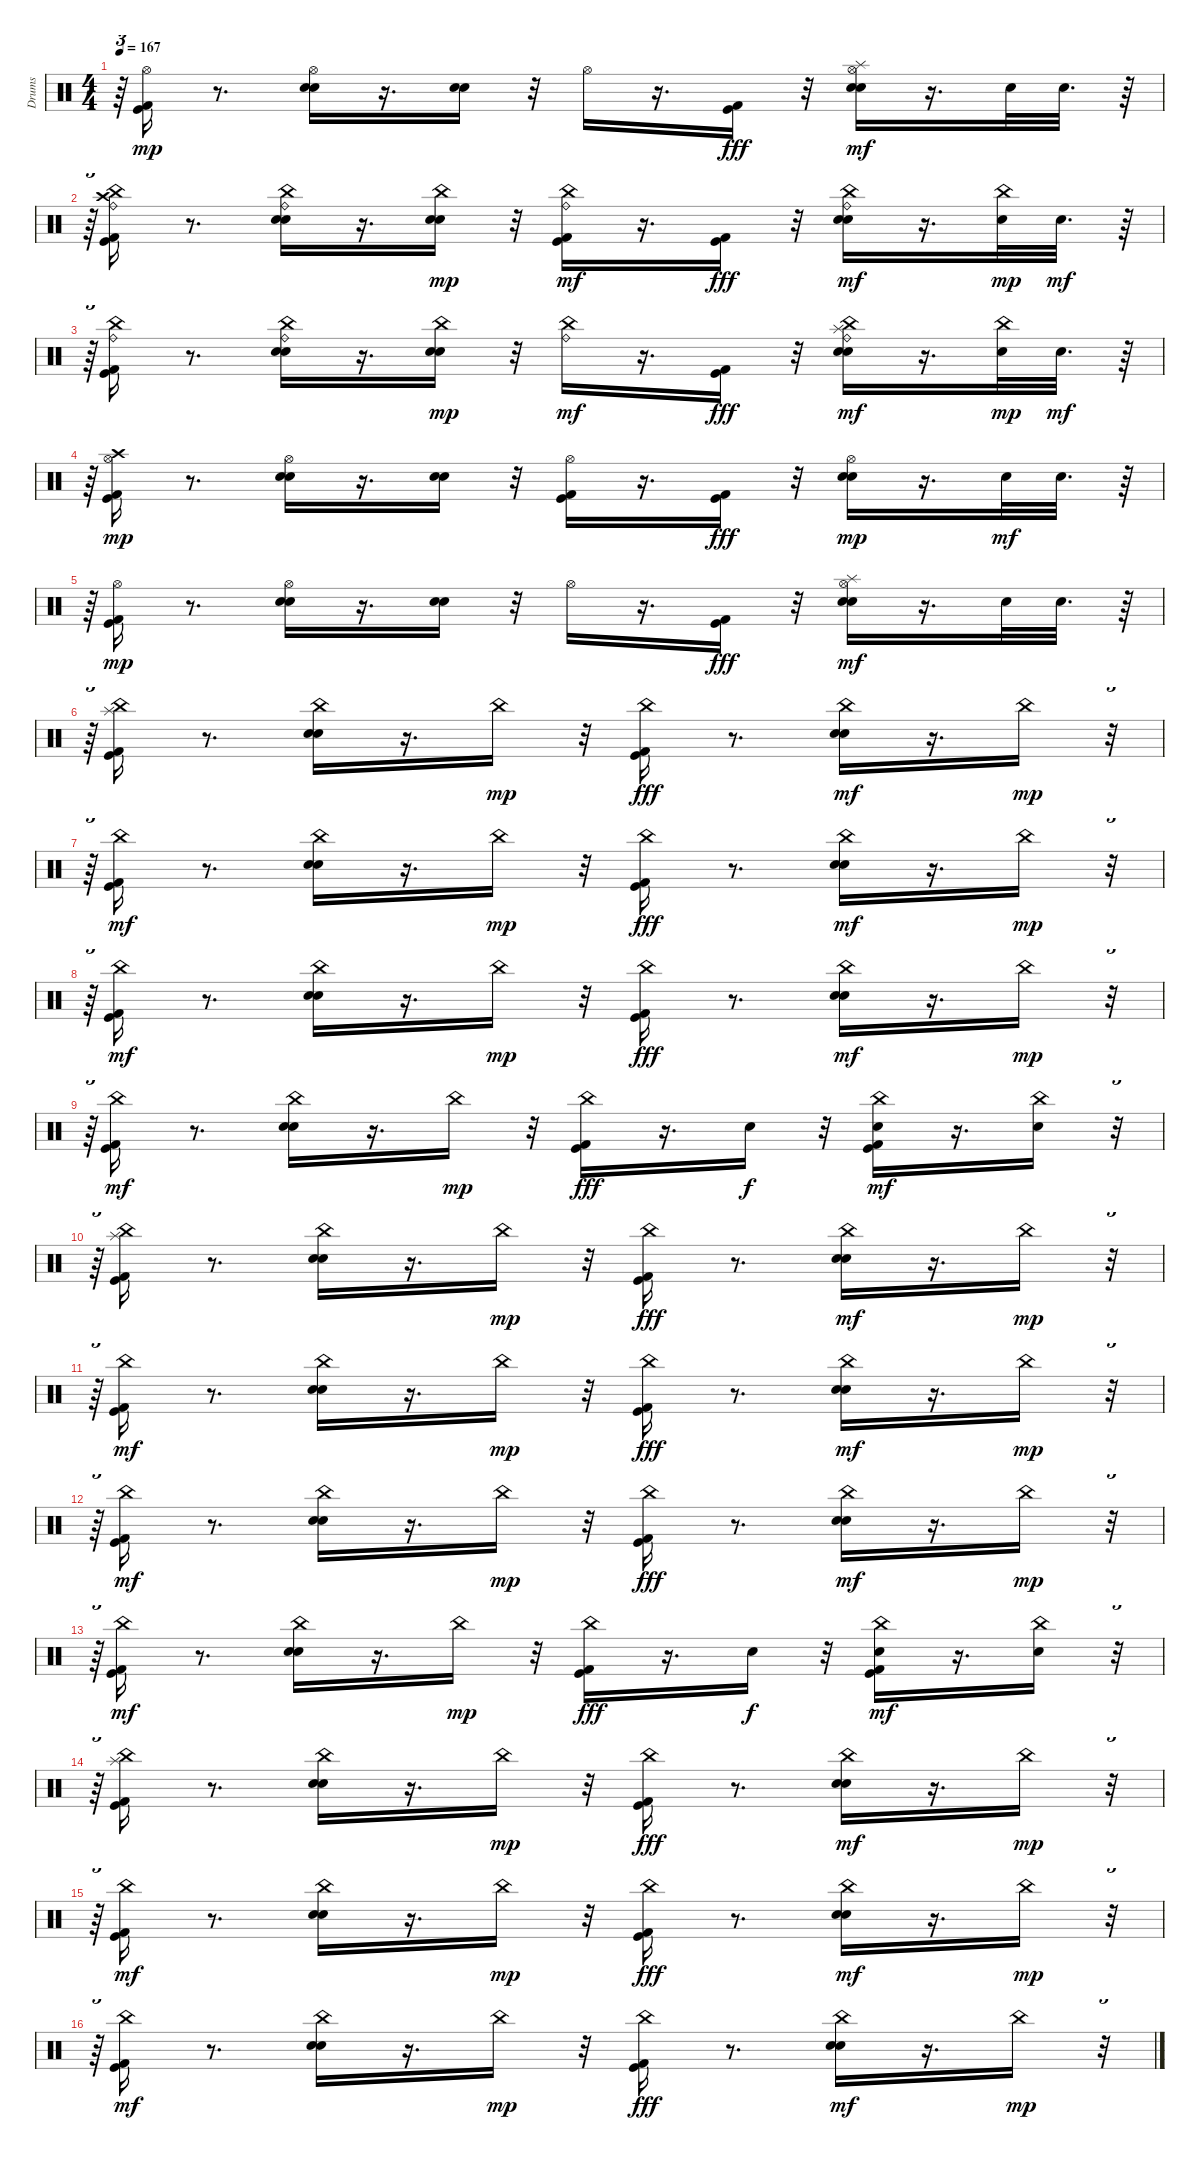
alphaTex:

\track ("Drums" "Drums") {instrument percussion}
\staff {score}
\articulation defaults
\ts (4 4)
\tempo 167
\clef neutral
\ks c
r.64{tu (3 2) dy mf} ("Kick (hit) 2" "Kick (hit)" "Hi-Hat (open)").16{dy mp} r.8{d} ("Snare (hit) 2" "Hand Clap (hit)" "Hi-Hat (open)").16 r.16{d} ("Snare (hit) 2" "Hand Clap (hit)").16 r.32 "Hi-Hat (open)".16 r.16{d} ("Kick (hit) 2" "Kick (hit)").16{dy fff} r.32 ("Snare (hit) 2" "Hand Clap (hit)" "Hi-Hat (open)" "Splash (hit)").16{dy mf} r.16{d} "Snare (hit) 2".32 "Hand Clap (hit)".32{d} r.64 |
r.64{tu (3 2)} ("Kick (hit) 2" "Kick (hit)" "China (hit)" "Ride (bell)" "Crash high (hit)").16 r.8{d} ("Snare (hit) 2" "Hand Clap (hit)" "China (hit)" "Ride (bell)").16 r.16{d} ("Snare (hit) 2" "Hand Clap (hit)" "China (hit)").16{dy mp} r.32 ("Kick (hit) 2" "Kick (hit)" "China (hit)" "Ride (bell)").16{dy mf} r.16{d} ("Kick (hit) 2" "Kick (hit)").16{dy fff} r.32 ("Snare (hit) 2" "Hand Clap (hit)" "China (hit)" "Ride (bell)").16{dy mf} r.16{d} ("Snare (hit) 2" "China (hit)").32{dy mp} "Hand Clap (hit)".32{d dy mf} r.64 |
r.64{tu (3 2)} ("Kick (hit) 2" "Kick (hit)" "China (hit)" "Ride (bell)").16 r.8{d} ("Snare (hit) 2" "Hand Clap (hit)" "China (hit)" "Ride (bell)").16 r.16{d} ("Snare (hit) 2" "Hand Clap (hit)" "China (hit)").16{dy mp} r.32 ("China (hit)" "Ride (bell)").16{dy mf} r.16{d} ("Kick (hit) 2" "Kick (hit)").16{dy fff} r.32 ("Snare (hit) 2" "Hand Clap (hit)" "China (hit)" "Ride (bell)" "Splash (hit)").16{dy mf} r.16{d} ("Snare (hit) 2" "China (hit)").32{dy mp} "Hand Clap (hit)".32{d dy mf} r.64 |
r.64{tu (3 2)} ("Kick (hit) 2" "Kick (hit)" "Crash high (hit)" "Hi-Hat (open)").16{dy mp} r.8{d} ("Snare (hit) 2" "Hand Clap (hit)" "Hi-Hat (open)").16 r.16{d} ("Snare (hit) 2" "Hand Clap (hit)").16 r.32 ("Kick (hit) 2" "Kick (hit)" "Hi-Hat (open)").16 r.16{d} ("Kick (hit) 2" "Kick (hit)").16{dy fff} r.32 ("Snare (hit) 2" "Hand Clap (hit)" "Hi-Hat (open)").16{dy mp} r.16{d} "Snare (hit) 2".32{dy mf} "Hand Clap (hit)".32{d} r.64 |
r.64{tu (3 2)} ("Kick (hit) 2" "Kick (hit)" "Hi-Hat (open)").16{dy mp} r.8{d} ("Snare (hit) 2" "Hand Clap (hit)" "Hi-Hat (open)").16 r.16{d} ("Snare (hit) 2" "Hand Clap (hit)").16 r.32 "Hi-Hat (open)".16 r.16{d} ("Kick (hit) 2" "Kick (hit)").16{dy fff} r.32 ("Snare (hit) 2" "Hand Clap (hit)" "Hi-Hat (open)" "Splash (hit)").16{dy mf} r.16{d} "Snare (hit) 2".32 "Hand Clap (hit)".32{d} r.64 |
r.64{tu (3 2)} ("Kick (hit) 2" "Kick (hit)" "Splash (hit)" "China (hit)").16 r.8{d} ("Snare (hit) 2" "China (hit)" "Hand Clap (hit)").16 r.16{d} "China (hit)".16{dy mp} r.32 ("China (hit)" "Kick (hit) 2" "Kick (hit)").16{dy fff} r.8{d} ("Snare (hit) 2" "China (hit)" "Hand Clap (hit)").16{dy mf} r.16{d} "China (hit)".16{dy mp} r.32{tu (3 2)} |
r.64{tu (3 2)} ("Kick (hit) 2" "Kick (hit)" "China (hit)").16{dy mf} r.8{d} ("Snare (hit) 2" "China (hit)" "Hand Clap (hit)").16 r.16{d} "China (hit)".16{dy mp} r.32 ("China (hit)" "Kick (hit) 2" "Kick (hit)").16{dy fff} r.8{d} ("Snare (hit) 2" "China (hit)" "Hand Clap (hit)").16{dy mf} r.16{d} "China (hit)".16{dy mp} r.32{tu (3 2)} |
r.64{tu (3 2)} ("Kick (hit) 2" "Kick (hit)" "China (hit)").16{dy mf} r.8{d} ("Snare (hit) 2" "China (hit)" "Hand Clap (hit)").16 r.16{d} "China (hit)".16{dy mp} r.32 ("China (hit)" "Kick (hit) 2" "Kick (hit)").16{dy fff} r.8{d} ("Snare (hit) 2" "China (hit)" "Hand Clap (hit)").16{dy mf} r.16{d} "China (hit)".16{dy mp} r.32{tu (3 2)} |
r.64{tu (3 2)} ("Kick (hit) 2" "Kick (hit)" "China (hit)").16{dy mf} r.8{d} ("Snare (hit) 2" "China (hit)" "Hand Clap (hit)").16 r.16{d} "China (hit)".16{dy mp} r.32 ("China (hit)" "Kick (hit) 2" "Kick (hit)").16{dy fff} r.16{d} "Snare (hit) 2".16{dy f} r.32 ("China (hit)" "Kick (hit) 2" "Kick (hit)" "Hand Clap (hit)").16{dy mf} r.16{d} ("China (hit)" "Snare (hit) 2").16 r.32{tu (3 2)} |
r.64{tu (3 2)} ("Kick (hit) 2" "Kick (hit)" "Splash (hit)" "China (hit)").16 r.8{d} ("Snare (hit) 2" "China (hit)" "Hand Clap (hit)").16 r.16{d} "China (hit)".16{dy mp} r.32 ("China (hit)" "Kick (hit) 2" "Kick (hit)").16{dy fff} r.8{d} ("Snare (hit) 2" "China (hit)" "Hand Clap (hit)").16{dy mf} r.16{d} "China (hit)".16{dy mp} r.32{tu (3 2)} |
r.64{tu (3 2)} ("Kick (hit) 2" "Kick (hit)" "China (hit)").16{dy mf} r.8{d} ("Snare (hit) 2" "China (hit)" "Hand Clap (hit)").16 r.16{d} "China (hit)".16{dy mp} r.32 ("China (hit)" "Kick (hit) 2" "Kick (hit)").16{dy fff} r.8{d} ("Snare (hit) 2" "China (hit)" "Hand Clap (hit)").16{dy mf} r.16{d} "China (hit)".16{dy mp} r.32{tu (3 2)} |
r.64{tu (3 2)} ("Kick (hit) 2" "Kick (hit)" "China (hit)").16{dy mf} r.8{d} ("Snare (hit) 2" "China (hit)" "Hand Clap (hit)").16 r.16{d} "China (hit)".16{dy mp} r.32 ("China (hit)" "Kick (hit) 2" "Kick (hit)").16{dy fff} r.8{d} ("Snare (hit) 2" "China (hit)" "Hand Clap (hit)").16{dy mf} r.16{d} "China (hit)".16{dy mp} r.32{tu (3 2)} |
r.64{tu (3 2)} ("Kick (hit) 2" "Kick (hit)" "China (hit)").16{dy mf} r.8{d} ("Snare (hit) 2" "China (hit)" "Hand Clap (hit)").16 r.16{d} "China (hit)".16{dy mp} r.32 ("China (hit)" "Kick (hit) 2" "Kick (hit)").16{dy fff} r.16{d} "Snare (hit) 2".16{dy f} r.32 ("China (hit)" "Kick (hit) 2" "Kick (hit)" "Hand Clap (hit)").16{dy mf} r.16{d} ("China (hit)" "Snare (hit) 2").16 r.32{tu (3 2)} |
r.64{tu (3 2)} ("Kick (hit) 2" "Kick (hit)" "Splash (hit)" "China (hit)").16 r.8{d} ("Snare (hit) 2" "China (hit)" "Hand Clap (hit)").16 r.16{d} "China (hit)".16{dy mp} r.32 ("China (hit)" "Kick (hit) 2" "Kick (hit)").16{dy fff} r.8{d} ("Snare (hit) 2" "China (hit)" "Hand Clap (hit)").16{dy mf} r.16{d} "China (hit)".16{dy mp} r.32{tu (3 2)} |
r.64{tu (3 2)} ("Kick (hit) 2" "Kick (hit)" "China (hit)").16{dy mf} r.8{d} ("Snare (hit) 2" "China (hit)" "Hand Clap (hit)").16 r.16{d} "China (hit)".16{dy mp} r.32 ("China (hit)" "Kick (hit) 2" "Kick (hit)").16{dy fff} r.8{d} ("Snare (hit) 2" "China (hit)" "Hand Clap (hit)").16{dy mf} r.16{d} "China (hit)".16{dy mp} r.32{tu (3 2)} |
r.64{tu (3 2)} ("Kick (hit) 2" "Kick (hit)" "China (hit)").16{dy mf} r.8{d} ("Snare (hit) 2" "China (hit)" "Hand Clap (hit)").16 r.16{d} "China (hit)".16{dy mp} r.32 ("China (hit)" "Kick (hit) 2" "Kick (hit)").16{dy fff} r.8{d} ("Snare (hit) 2" "China (hit)" "Hand Clap (hit)").16{dy mf} r.16{d} "China (hit)".16{dy mp} r.32{tu (3 2)}
